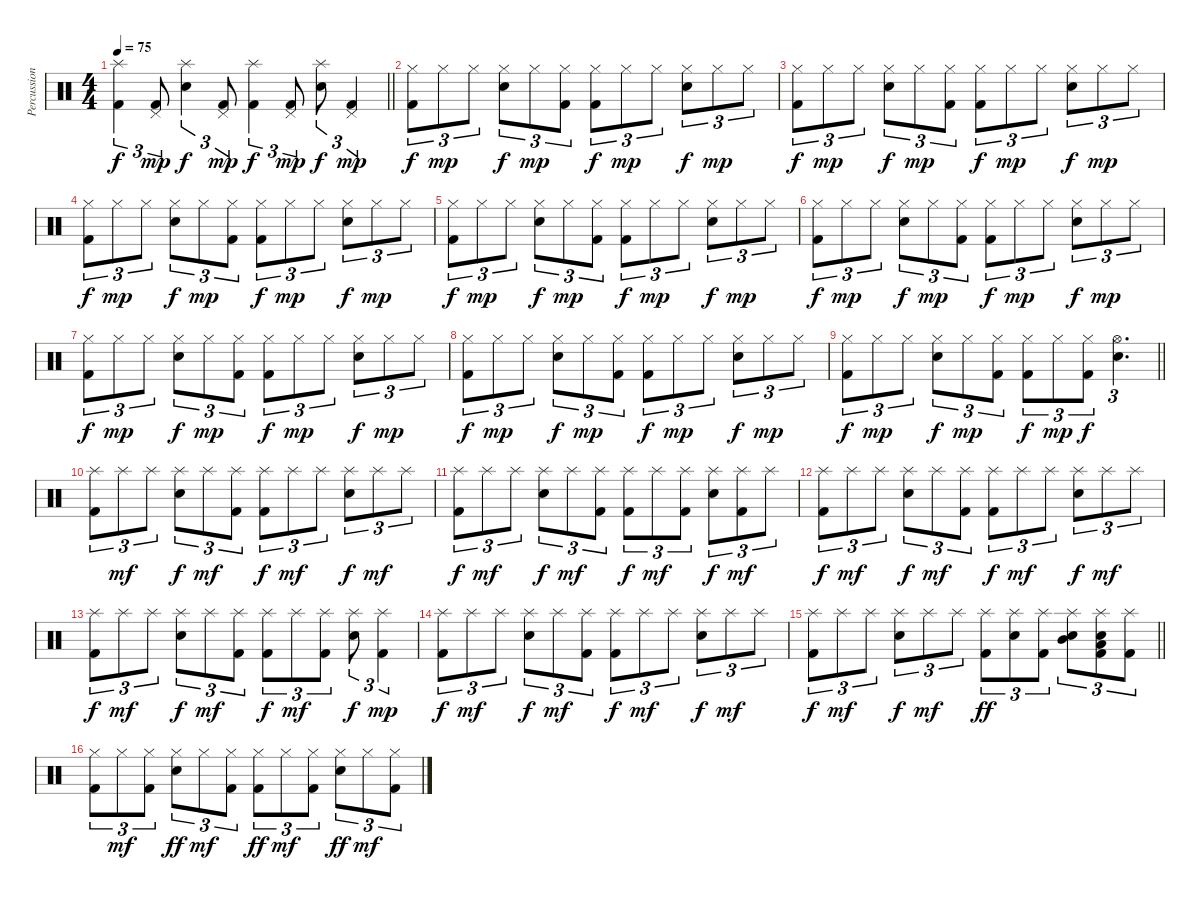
\track ("Percussions" "Percussion") {instrument percussion}
\staff {score}
\articulation defaults
\ts (4 4)
\tempo 75
\clef neutral
\barLineRight lightlight
\ks c
("Splash (hit)" "Kick (hit) 2").4{tu (3 2) dy f} ("Pedal Hi-Hat (hit)" "Kick (hit) 2").8{tu (3 2) dy mp} ("Splash (hit)" "Electric Snare (hit)").4{tu (3 2) dy f} ("Pedal Hi-Hat (hit)" "Kick (hit) 2").8{tu (3 2) dy mp} ("Splash (hit)" "Kick (hit) 2").4{tu (3 2) dy f} ("Pedal Hi-Hat (hit)" "Kick (hit) 2").8{tu (3 2) dy mp} ("Splash (hit)" "Electric Snare (hit)").8{tu (3 2) dy f} ("Pedal Hi-Hat (hit)" "Kick (hit) 2").4{tu (3 2) dy mp} |
("Hi-Hat (closed)" "Kick (hit) 2").8{tu (3 2) dy f} "Hi-Hat (closed)".8{tu (3 2) dy mp} "Hi-Hat (closed)".8{tu (3 2)} ("Hi-Hat (closed)" "Electric Snare (hit)").8{tu (3 2) dy f} "Hi-Hat (closed)".8{tu (3 2) dy mp} ("Hi-Hat (closed)" "Kick (hit) 2").8{tu (3 2)} ("Hi-Hat (closed)" "Kick (hit) 2").8{tu (3 2) dy f} "Hi-Hat (closed)".8{tu (3 2) dy mp} "Hi-Hat (closed)".8{tu (3 2)} ("Hi-Hat (closed)" "Electric Snare (hit)").8{tu (3 2) dy f} "Hi-Hat (closed)".8{tu (3 2) dy mp} "Hi-Hat (closed)".8{tu (3 2)} |
("Hi-Hat (closed)" "Kick (hit) 2").8{tu (3 2) dy f} "Hi-Hat (closed)".8{tu (3 2) dy mp} "Hi-Hat (closed)".8{tu (3 2)} ("Hi-Hat (closed)" "Electric Snare (hit)").8{tu (3 2) dy f} "Hi-Hat (closed)".8{tu (3 2) dy mp} ("Hi-Hat (closed)" "Kick (hit) 2").8{tu (3 2)} ("Hi-Hat (closed)" "Kick (hit) 2").8{tu (3 2) dy f} "Hi-Hat (closed)".8{tu (3 2) dy mp} "Hi-Hat (closed)".8{tu (3 2)} ("Hi-Hat (closed)" "Electric Snare (hit)").8{tu (3 2) dy f} "Hi-Hat (closed)".8{tu (3 2) dy mp} "Hi-Hat (closed)".8{tu (3 2)} |
("Hi-Hat (closed)" "Kick (hit) 2").8{tu (3 2) dy f} "Hi-Hat (closed)".8{tu (3 2) dy mp} "Hi-Hat (closed)".8{tu (3 2)} ("Hi-Hat (closed)" "Electric Snare (hit)").8{tu (3 2) dy f} "Hi-Hat (closed)".8{tu (3 2) dy mp} ("Hi-Hat (closed)" "Kick (hit) 2").8{tu (3 2)} ("Hi-Hat (closed)" "Kick (hit) 2").8{tu (3 2) dy f} "Hi-Hat (closed)".8{tu (3 2) dy mp} "Hi-Hat (closed)".8{tu (3 2)} ("Hi-Hat (closed)" "Electric Snare (hit)").8{tu (3 2) dy f} "Hi-Hat (closed)".8{tu (3 2) dy mp} "Hi-Hat (closed)".8{tu (3 2)} |
("Hi-Hat (closed)" "Kick (hit) 2").8{tu (3 2) dy f} "Hi-Hat (closed)".8{tu (3 2) dy mp} "Hi-Hat (closed)".8{tu (3 2)} ("Hi-Hat (closed)" "Electric Snare (hit)").8{tu (3 2) dy f} "Hi-Hat (closed)".8{tu (3 2) dy mp} ("Hi-Hat (closed)" "Kick (hit) 2").8{tu (3 2)} ("Hi-Hat (closed)" "Kick (hit) 2").8{tu (3 2) dy f} "Hi-Hat (closed)".8{tu (3 2) dy mp} "Hi-Hat (closed)".8{tu (3 2)} ("Hi-Hat (closed)" "Electric Snare (hit)").8{tu (3 2) dy f} "Hi-Hat (closed)".8{tu (3 2) dy mp} "Hi-Hat (closed)".8{tu (3 2)} |
("Hi-Hat (closed)" "Kick (hit) 2").8{tu (3 2) dy f} "Hi-Hat (closed)".8{tu (3 2) dy mp} "Hi-Hat (closed)".8{tu (3 2)} ("Hi-Hat (closed)" "Electric Snare (hit)").8{tu (3 2) dy f} "Hi-Hat (closed)".8{tu (3 2) dy mp} ("Hi-Hat (closed)" "Kick (hit) 2").8{tu (3 2)} ("Hi-Hat (closed)" "Kick (hit) 2").8{tu (3 2) dy f} "Hi-Hat (closed)".8{tu (3 2) dy mp} "Hi-Hat (closed)".8{tu (3 2)} ("Hi-Hat (closed)" "Electric Snare (hit)").8{tu (3 2) dy f} "Hi-Hat (closed)".8{tu (3 2) dy mp} "Hi-Hat (closed)".8{tu (3 2)} |
("Hi-Hat (closed)" "Kick (hit) 2").8{tu (3 2) dy f} "Hi-Hat (closed)".8{tu (3 2) dy mp} "Hi-Hat (closed)".8{tu (3 2)} ("Hi-Hat (closed)" "Electric Snare (hit)").8{tu (3 2) dy f} "Hi-Hat (closed)".8{tu (3 2) dy mp} ("Hi-Hat (closed)" "Kick (hit) 2").8{tu (3 2)} ("Hi-Hat (closed)" "Kick (hit) 2").8{tu (3 2) dy f} "Hi-Hat (closed)".8{tu (3 2) dy mp} "Hi-Hat (closed)".8{tu (3 2)} ("Hi-Hat (closed)" "Electric Snare (hit)").8{tu (3 2) dy f} "Hi-Hat (closed)".8{tu (3 2) dy mp} "Hi-Hat (closed)".8{tu (3 2)} |
("Hi-Hat (closed)" "Kick (hit) 2").8{tu (3 2) dy f} "Hi-Hat (closed)".8{tu (3 2) dy mp} "Hi-Hat (closed)".8{tu (3 2)} ("Hi-Hat (closed)" "Electric Snare (hit)").8{tu (3 2) dy f} "Hi-Hat (closed)".8{tu (3 2) dy mp} ("Hi-Hat (closed)" "Kick (hit) 2").8{tu (3 2)} ("Hi-Hat (closed)" "Kick (hit) 2").8{tu (3 2) dy f} "Hi-Hat (closed)".8{tu (3 2) dy mp} "Hi-Hat (closed)".8{tu (3 2)} ("Hi-Hat (closed)" "Electric Snare (hit)").8{tu (3 2) dy f} "Hi-Hat (closed)".8{tu (3 2) dy mp} "Hi-Hat (closed)".8{tu (3 2)} |
\barLineRight lightlight
("Hi-Hat (closed)" "Kick (hit) 2").8{tu (3 2) dy f} "Hi-Hat (closed)".8{tu (3 2) dy mp} "Hi-Hat (closed)".8{tu (3 2)} ("Hi-Hat (closed)" "Electric Snare (hit)").8{tu (3 2) dy f} "Hi-Hat (closed)".8{tu (3 2) dy mp} ("Hi-Hat (closed)" "Kick (hit) 2").8{tu (3 2)} ("Hi-Hat (closed)" "Kick (hit) 2").8{tu (3 2) dy f} "Hi-Hat (closed)".8{tu (3 2) dy mp} ("Hi-Hat (closed)" "Kick (hit) 2").8{tu (3 2) dy f} ("Hi-Hat (open)" "Electric Snare (hit)").4{d tu (3 2)} |
("Splash (hit)" "Kick (hit) 2").8{tu (3 2)} "Splash (hit)".8{tu (3 2) dy mf} "Splash (hit)".8{tu (3 2)} ("Splash (hit)" "Electric Snare (hit)").8{tu (3 2) dy f} "Splash (hit)".8{tu (3 2) dy mf} ("Splash (hit)" "Kick (hit) 2").8{tu (3 2)} ("Splash (hit)" "Kick (hit) 2").8{tu (3 2) dy f} "Splash (hit)".8{tu (3 2) dy mf} "Splash (hit)".8{tu (3 2)} ("Splash (hit)" "Electric Snare (hit)").8{tu (3 2) dy f} "Splash (hit)".8{tu (3 2) dy mf} "Splash (hit)".8{tu (3 2)} |
("Splash (hit)" "Kick (hit) 2").8{tu (3 2) dy f} "Splash (hit)".8{tu (3 2) dy mf} "Splash (hit)".8{tu (3 2)} ("Splash (hit)" "Electric Snare (hit)").8{tu (3 2) dy f} "Splash (hit)".8{tu (3 2) dy mf} ("Splash (hit)" "Kick (hit) 2").8{tu (3 2)} ("Splash (hit)" "Kick (hit) 2").8{tu (3 2) dy f} "Splash (hit)".8{tu (3 2) dy mf} ("Splash (hit)" "Kick (hit) 2").8{tu (3 2)} ("Splash (hit)" "Electric Snare (hit)").8{tu (3 2) dy f} ("Splash (hit)" "Kick (hit) 2").8{tu (3 2) dy mf} "Splash (hit)".8{tu (3 2)} |
("Splash (hit)" "Kick (hit) 2").8{tu (3 2) dy f} "Splash (hit)".8{tu (3 2) dy mf} "Splash (hit)".8{tu (3 2)} ("Splash (hit)" "Electric Snare (hit)").8{tu (3 2) dy f} "Splash (hit)".8{tu (3 2) dy mf} ("Splash (hit)" "Kick (hit) 2").8{tu (3 2)} ("Splash (hit)" "Kick (hit) 2").8{tu (3 2) dy f} "Splash (hit)".8{tu (3 2) dy mf} "Splash (hit)".8{tu (3 2)} ("Splash (hit)" "Electric Snare (hit)").8{tu (3 2) dy f} "Splash (hit)".8{tu (3 2) dy mf} "Splash (hit)".8{tu (3 2)} |
("Splash (hit)" "Kick (hit) 2").8{tu (3 2) dy f} "Splash (hit)".8{tu (3 2) dy mf} "Splash (hit)".8{tu (3 2)} ("Splash (hit)" "Electric Snare (hit)").8{tu (3 2) dy f} "Splash (hit)".8{tu (3 2) dy mf} ("Splash (hit)" "Kick (hit) 2").8{tu (3 2)} ("Splash (hit)" "Kick (hit) 2").8{tu (3 2) dy f} "Splash (hit)".8{tu (3 2) dy mf} ("Splash (hit)" "Kick (hit) 2").8{tu (3 2)} ("Splash (hit)" "Electric Snare (hit)").8{tu (3 2) dy f} ("Splash (hit)" "Kick (hit) 2").4{tu (3 2) dy mp} |
("Splash (hit)" "Kick (hit) 2").8{tu (3 2) dy f} "Splash (hit)".8{tu (3 2) dy mf} "Splash (hit)".8{tu (3 2)} ("Splash (hit)" "Electric Snare (hit)").8{tu (3 2) dy f} "Splash (hit)".8{tu (3 2) dy mf} ("Splash (hit)" "Kick (hit) 2").8{tu (3 2)} ("Splash (hit)" "Kick (hit) 2").8{tu (3 2) dy f} "Splash (hit)".8{tu (3 2) dy mf} "Splash (hit)".8{tu (3 2)} ("Splash (hit)" "Electric Snare (hit)").8{tu (3 2) dy f} "Splash (hit)".8{tu (3 2) dy mf} "Splash (hit)".8{tu (3 2)} |
\barLineRight lightlight
("Splash (hit)" "Kick (hit) 2").8{tu (3 2) dy f} "Splash (hit)".8{tu (3 2) dy mf} "Splash (hit)".8{tu (3 2)} ("Splash (hit)" "Electric Snare (hit)").8{tu (3 2) dy f} "Splash (hit)".8{tu (3 2) dy mf} "Splash (hit)".8{tu (3 2)} ("Splash (hit)" "Kick (hit) 2").8{tu (3 2) dy ff} ("Splash (hit)" "Electric Snare (hit)").8{tu (3 2)} ("Splash (hit)" "Kick (hit) 2").8{tu (3 2)} ("Splash (hit)" "Mid Tom (hit)" "Electric Snare (hit)").8{tu (3 2)} ("Splash (hit)" "Low Tom (hit)" "Electric Snare (hit)" "Kick (hit) 2").8{tu (3 2)} ("Splash (hit)" "Kick (hit) 2").8{tu (3 2)} |
("Hi-Hat (closed)" "Kick (hit) 2").8{tu (3 2)} "Hi-Hat (closed)".8{tu (3 2) dy mf} ("Hi-Hat (closed)" "Kick (hit) 2").8{tu (3 2)} ("Hi-Hat (closed)" "Electric Snare (hit)").8{tu (3 2) dy ff} "Hi-Hat (closed)".8{tu (3 2) dy mf} ("Hi-Hat (closed)" "Kick (hit) 2").8{tu (3 2)} ("Hi-Hat (closed)" "Kick (hit) 2").8{tu (3 2) dy ff} "Hi-Hat (closed)".8{tu (3 2) dy mf} ("Hi-Hat (closed)" "Kick (hit) 2").8{tu (3 2)} ("Hi-Hat (closed)" "Electric Snare (hit)").8{tu (3 2) dy ff} "Hi-Hat (closed)".8{tu (3 2) dy mf} ("Hi-Hat (closed)" "Kick (hit) 2").8{tu (3 2)}
